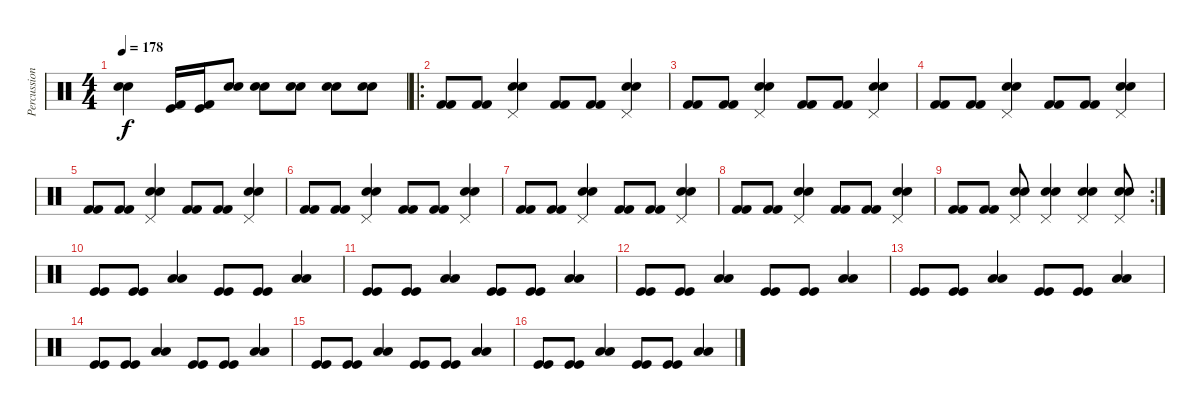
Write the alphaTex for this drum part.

\track ("Percussion" "Percussion") {instrument percussion}
\staff {score}
\articulation defaults
\ts (4 4)
\tempo 178
\clef neutral
\ks c
("Electric Snare (hit)" "Snare (hit) 2").4{dy f} ("Kick (hit)" "Kick (hit) 2").16 ("Kick (hit)" "Kick (hit) 2").16 ("Electric Snare (hit)" "Snare (hit) 2").8 ("Snare (hit) 2" "Snare (hit) 2").8 ("Snare (hit) 2" "Snare (hit) 2").8 ("Snare (hit) 2" "Snare (hit) 2").8 ("Electric Snare (hit)" "Snare (hit) 2").8 |
\ro
("Kick (hit) 2" "Kick (hit) 2").8 ("Kick (hit) 2" "Kick (hit) 2").8 ("Snare (hit) 2" "Electric Snare (hit)" "Pedal Hi-Hat (hit)").4 ("Kick (hit) 2" "Kick (hit) 2").8 ("Kick (hit) 2" "Kick (hit) 2").8 ("Snare (hit) 2" "Electric Snare (hit)" "Pedal Hi-Hat (hit)").4 |
("Kick (hit) 2" "Kick (hit) 2").8 ("Kick (hit) 2" "Kick (hit) 2").8 ("Snare (hit) 2" "Electric Snare (hit)" "Pedal Hi-Hat (hit)").4 ("Kick (hit) 2" "Kick (hit) 2").8 ("Kick (hit) 2" "Kick (hit) 2").8 ("Snare (hit) 2" "Electric Snare (hit)" "Pedal Hi-Hat (hit)").4 |
("Kick (hit) 2" "Kick (hit) 2").8 ("Kick (hit) 2" "Kick (hit) 2").8 ("Snare (hit) 2" "Electric Snare (hit)" "Pedal Hi-Hat (hit)").4 ("Kick (hit) 2" "Kick (hit) 2").8 ("Kick (hit) 2" "Kick (hit) 2").8 ("Snare (hit) 2" "Electric Snare (hit)" "Pedal Hi-Hat (hit)").4 |
("Kick (hit) 2" "Kick (hit) 2").8 ("Kick (hit) 2" "Kick (hit) 2").8 ("Snare (hit) 2" "Electric Snare (hit)" "Pedal Hi-Hat (hit)").4 ("Kick (hit) 2" "Kick (hit) 2").8 ("Kick (hit) 2" "Kick (hit) 2").8 ("Snare (hit) 2" "Electric Snare (hit)" "Pedal Hi-Hat (hit)").4 |
("Kick (hit) 2" "Kick (hit) 2").8 ("Kick (hit) 2" "Kick (hit) 2").8 ("Snare (hit) 2" "Electric Snare (hit)" "Pedal Hi-Hat (hit)").4 ("Kick (hit) 2" "Kick (hit) 2").8 ("Kick (hit) 2" "Kick (hit) 2").8 ("Snare (hit) 2" "Electric Snare (hit)" "Pedal Hi-Hat (hit)").4 |
("Kick (hit) 2" "Kick (hit) 2").8 ("Kick (hit) 2" "Kick (hit) 2").8 ("Snare (hit) 2" "Electric Snare (hit)" "Pedal Hi-Hat (hit)").4 ("Kick (hit) 2" "Kick (hit) 2").8 ("Kick (hit) 2" "Kick (hit) 2").8 ("Snare (hit) 2" "Electric Snare (hit)" "Pedal Hi-Hat (hit)").4 |
("Kick (hit) 2" "Kick (hit) 2").8 ("Kick (hit) 2" "Kick (hit) 2").8 ("Snare (hit) 2" "Electric Snare (hit)" "Pedal Hi-Hat (hit)").4 ("Kick (hit) 2" "Kick (hit) 2").8 ("Kick (hit) 2" "Kick (hit) 2").8 ("Snare (hit) 2" "Electric Snare (hit)" "Pedal Hi-Hat (hit)").4 |
\rc 2
("Kick (hit) 2" "Kick (hit) 2").8 ("Kick (hit) 2" "Kick (hit) 2").8 ("Snare (hit) 2" "Electric Snare (hit)" "Pedal Hi-Hat (hit)").8 ("Snare (hit) 2" "Electric Snare (hit)" "Pedal Hi-Hat (hit)").4 ("Snare (hit) 2" "Electric Snare (hit)" "Pedal Hi-Hat (hit)").4 ("Snare (hit) 2" "Electric Snare (hit)" "Pedal Hi-Hat (hit)").8 |
("Kick (hit)" "Kick (hit)").8 ("Kick (hit)" "Kick (hit)").8 ("Low Tom (hit)" "Low Tom (hit)").4 ("Kick (hit)" "Kick (hit)").8 ("Kick (hit)" "Kick (hit)").8 ("Low Tom (hit)" "Low Tom (hit)").4 |
("Kick (hit)" "Kick (hit)").8 ("Kick (hit)" "Kick (hit)").8 ("Low Tom (hit)" "Low Tom (hit)").4 ("Kick (hit)" "Kick (hit)").8 ("Kick (hit)" "Kick (hit)").8 ("Low Tom (hit)" "Low Tom (hit)").4 |
("Kick (hit)" "Kick (hit)").8 ("Kick (hit)" "Kick (hit)").8 ("Low Tom (hit)" "Low Tom (hit)").4 ("Kick (hit)" "Kick (hit)").8 ("Kick (hit)" "Kick (hit)").8 ("Low Tom (hit)" "Low Tom (hit)").4 |
("Kick (hit)" "Kick (hit)").8 ("Kick (hit)" "Kick (hit)").8 ("Low Tom (hit)" "Low Tom (hit)").4 ("Kick (hit)" "Kick (hit)").8 ("Kick (hit)" "Kick (hit)").8 ("Low Tom (hit)" "Low Tom (hit)").4 |
("Kick (hit)" "Kick (hit)").8 ("Kick (hit)" "Kick (hit)").8 ("Low Tom (hit)" "Low Tom (hit)").4 ("Kick (hit)" "Kick (hit)").8 ("Kick (hit)" "Kick (hit)").8 ("Low Tom (hit)" "Low Tom (hit)").4 |
("Kick (hit)" "Kick (hit)").8 ("Kick (hit)" "Kick (hit)").8 ("Low Tom (hit)" "Low Tom (hit)").4 ("Kick (hit)" "Kick (hit)").8 ("Kick (hit)" "Kick (hit)").8 ("Low Tom (hit)" "Low Tom (hit)").4 |
("Kick (hit)" "Kick (hit)").8 ("Kick (hit)" "Kick (hit)").8 ("Low Tom (hit)" "Low Tom (hit)").4 ("Kick (hit)" "Kick (hit)").8 ("Kick (hit)" "Kick (hit)").8 ("Low Tom (hit)" "Low Tom (hit)").4
